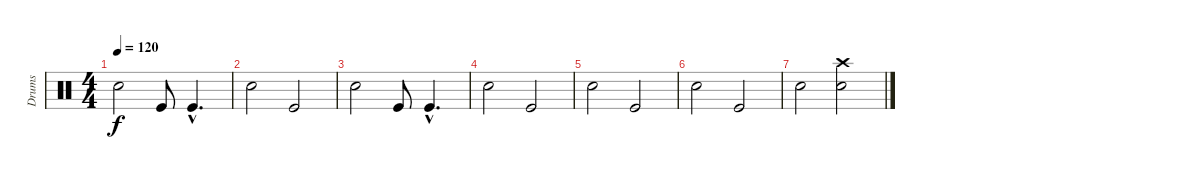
\track ("Drums" "Drums") {instrument percussion}
\staff {score}
\articulation defaults
\ts (4 4)
\tempo 120
\clef neutral
\ks c "Snare (hit) 2".2{dy f volume 9} "Kick (hit)".8{volume 8} "Kick (hit)"{hac}.4{d volume 7}
|
"Snare (hit) 2".2{volume 6} "Kick (hit)".2{volume 5} |
"Snare (hit) 2".2{volume 4} "Kick (hit)".8{volume 3} "Kick (hit)"{hac}.4{d volume 2} |
"Snare (hit) 2".2{volume 2} "Kick (hit)".2{volume 2} |
"Snare (hit) 2".2{volume 1} "Kick (hit)".2 |
"Snare (hit) 2".2 "Kick (hit)".2 |
"Snare (hit) 2".2 ("Electric Snare (hit)" "Crash high (hit)").2
